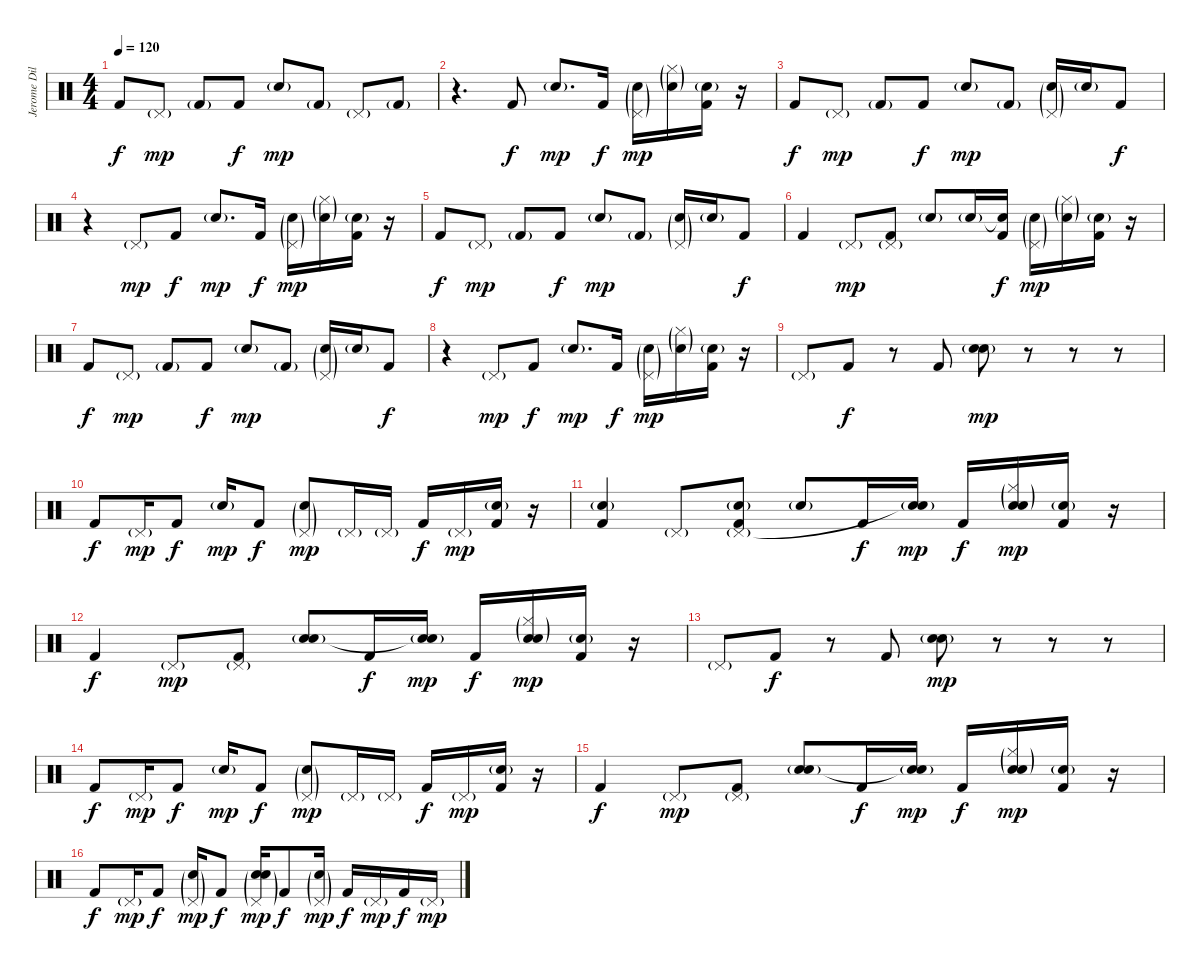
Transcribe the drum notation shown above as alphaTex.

\track ("Jerome Dillon" "Jerome Dil") {instrument percussion}
\staff {score}
\articulation defaults
\ts (4 4)
\tempo 120
\clef neutral
\ks c "Kick (hit) 2".8{dy f} "Pedal Hi-Hat (hit)"{g}.8{dy mp} "Kick (hit) 2"{g}.8 "Kick (hit) 2".8{dy f} "Electric Snare (hit)"{g}.8{dy mp} "Kick (hit) 2"{g}.8 "Pedal Hi-Hat (hit)"{g}.8 "Kick (hit) 2"{g}.8
|
r.4{d} "Kick (hit) 2".8{dy f} "Electric Snare (hit)"{g}.8{d dy mp} "Kick (hit) 2".16{dy f} ("Pedal Hi-Hat (hit)"{g} "Electric Snare (hit)"{g}).16{dy mp} ("Hi-Hat (closed)"{g} "Electric Snare (hit)"{g}).16 ("Electric Snare (hit)"{g} "Kick (hit) 2").16 r.16 |
"Kick (hit) 2".8{dy f} "Pedal Hi-Hat (hit)"{g}.8{dy mp} "Kick (hit) 2"{g}.8 "Kick (hit) 2".8{dy f} "Electric Snare (hit)"{g}.8{dy mp} "Kick (hit) 2"{g}.8 ("Pedal Hi-Hat (hit)"{g} "Electric Snare (hit)"{g}).16 "Electric Snare (hit)"{g}.16 "Kick (hit) 2".8{dy f} |
r.4 "Pedal Hi-Hat (hit)"{g}.8{dy mp} "Kick (hit) 2".8{dy f} "Electric Snare (hit)"{g}.8{d dy mp} "Kick (hit) 2".16{dy f} ("Pedal Hi-Hat (hit)"{g} "Electric Snare (hit)"{g}).16{dy mp} ("Hi-Hat (closed)"{g} "Electric Snare (hit)"{g}).16 ("Electric Snare (hit)"{g} "Kick (hit) 2").16 r.16 |
"Kick (hit) 2".8{dy f} "Pedal Hi-Hat (hit)"{g}.8{dy mp} "Kick (hit) 2"{g}.8 "Kick (hit) 2".8{dy f} "Electric Snare (hit)"{g}.8{dy mp} "Kick (hit) 2"{g}.8 ("Pedal Hi-Hat (hit)"{g} "Electric Snare (hit)"{g}).16 "Electric Snare (hit)"{g}.16 "Kick (hit) 2".8{dy f} |
"Kick (hit) 2".4 "Pedal Hi-Hat (hit)"{g}.8{dy mp} ("Pedal Hi-Hat (hit)"{g} "Kick (hit) 2").8 "Electric Snare (hit)"{g}.8 "Snare (hit) 2"{g}.16 ("Snare (hit)"{t} "Kick (hit) 2").16{dy f} ("Pedal Hi-Hat (hit)"{g} "Electric Snare (hit)"{g}).16{dy mp} ("Hi-Hat (closed)"{g} "Electric Snare (hit)"{g}).16 ("Electric Snare (hit)"{g} "Kick (hit) 2").16 r.16 |
"Kick (hit) 2".8{dy f} "Pedal Hi-Hat (hit)"{g}.8{dy mp} "Kick (hit) 2"{g}.8 "Kick (hit) 2".8{dy f} "Electric Snare (hit)"{g}.8{dy mp} "Kick (hit) 2"{g}.8 ("Pedal Hi-Hat (hit)"{g} "Electric Snare (hit)"{g}).16 "Electric Snare (hit)"{g}.16 "Kick (hit) 2".8{dy f} |
r.4 "Pedal Hi-Hat (hit)"{g}.8{dy mp} "Kick (hit) 2".8{dy f} "Electric Snare (hit)"{g}.8{d dy mp} "Kick (hit) 2".16{dy f} ("Pedal Hi-Hat (hit)"{g} "Electric Snare (hit)"{g}).16{dy mp} ("Hi-Hat (closed)"{g} "Electric Snare (hit)"{g}).16 ("Electric Snare (hit)"{g} "Kick (hit) 2").16 r.16 |
"Pedal Hi-Hat (hit)"{g}.8 "Kick (hit) 2".8{dy f} r.8 "Kick (hit) 2".8 ("Electric Snare (hit)"{g} "Electric Snare (hit)"{g}).8{dy mp} r.8 r.8 r.8 |
"Kick (hit) 2".8{dy f} "Pedal Hi-Hat (hit)"{g}.16{dy mp} "Kick (hit) 2".8{dy f} "Electric Snare (hit)"{g}.16{dy mp} "Kick (hit) 2".8{dy f} ("Pedal Hi-Hat (hit)"{g} "Electric Snare (hit)"{g}).8{dy mp} "Pedal Hi-Hat (hit)"{g}.16 "Pedal Hi-Hat (hit)"{g}.16 "Kick (hit) 2".16{dy f} "Pedal Hi-Hat (hit)"{g}.16{dy mp} ("Electric Snare (hit)"{g} "Kick (hit) 2").16 r.16 |
("Snare (hit) 2"{g} "Kick (hit) 2").4 "Pedal Hi-Hat (hit)"{g}.8 ("Snare (hit) 2"{g} "Pedal Hi-Hat (hit)"{g} "Kick (hit) 2").8 "Electric Snare (hit)"{g}.8 "Kick (hit) 2".16{dy f} ("Snare (hit) 2"{g} "Snare (hit)"{t}).16{dy mp} "Kick (hit) 2".16{dy f} ("Hi-Hat (closed)"{g} "Electric Snare (hit)"{g} "Snare (hit) 2"{g}).16{dy mp} ("Electric Snare (hit)"{g} "Kick (hit) 2").16 r.16 |
"Kick (hit) 2".4{dy f} "Pedal Hi-Hat (hit)"{g}.8{dy mp} ("Pedal Hi-Hat (hit)"{g} "Kick (hit) 2").8 ("Snare (hit) 2"{g} "Electric Snare (hit)"{g}).8 "Kick (hit) 2".16{dy f} ("Snare (hit) 2"{g} "Snare (hit)"{t}).16{dy mp} "Kick (hit) 2".16{dy f} ("Hi-Hat (closed)"{g} "Electric Snare (hit)"{g} "Snare (hit) 2"{g}).16{dy mp} ("Electric Snare (hit)"{g} "Kick (hit) 2").16 r.16 |
"Pedal Hi-Hat (hit)"{g}.8 "Kick (hit) 2".8{dy f} r.8 "Kick (hit) 2".8 ("Electric Snare (hit)"{g} "Electric Snare (hit)"{g}).8{dy mp} r.8 r.8 r.8 |
"Kick (hit) 2".8{dy f} "Pedal Hi-Hat (hit)"{g}.16{dy mp} "Kick (hit) 2".8{dy f} "Electric Snare (hit)"{g}.16{dy mp} "Kick (hit) 2".8{dy f} ("Pedal Hi-Hat (hit)"{g} "Electric Snare (hit)"{g}).8{dy mp} "Pedal Hi-Hat (hit)"{g}.16 "Pedal Hi-Hat (hit)"{g}.16 "Kick (hit) 2".16{dy f} "Pedal Hi-Hat (hit)"{g}.16{dy mp} ("Electric Snare (hit)"{g} "Kick (hit) 2").16 r.16 |
"Kick (hit) 2".4{dy f} "Pedal Hi-Hat (hit)"{g}.8{dy mp} ("Pedal Hi-Hat (hit)"{g} "Kick (hit) 2").8 ("Snare (hit) 2"{g} "Electric Snare (hit)"{g}).8 "Kick (hit) 2".16{dy f} ("Snare (hit) 2"{g} "Snare (hit)"{t}).16{dy mp} "Kick (hit) 2".16{dy f} ("Hi-Hat (closed)"{g} "Electric Snare (hit)"{g} "Snare (hit) 2"{g}).16{dy mp} ("Electric Snare (hit)"{g} "Kick (hit) 2").16 r.16 |
"Kick (hit) 2".8{dy f} "Pedal Hi-Hat (hit)"{g}.16{dy mp} "Kick (hit) 2".8{dy f} ("Electric Snare (hit)"{g} "Pedal Hi-Hat (hit)"{g}).16{dy mp} "Kick (hit) 2".8{dy f} ("Electric Snare (hit)"{g} "Snare (hit) 2"{g} "Pedal Hi-Hat (hit)"{g}).16{dy mp} "Kick (hit) 2".8{dy f} ("Snare (hit) 2"{g} "Pedal Hi-Hat (hit)"{g}).16{dy mp} "Kick (hit) 2".16{dy f} "Pedal Hi-Hat (hit)"{g}.16{dy mp} "Kick (hit) 2".16{dy f} "Pedal Hi-Hat (hit)"{g}.16{dy mp}
